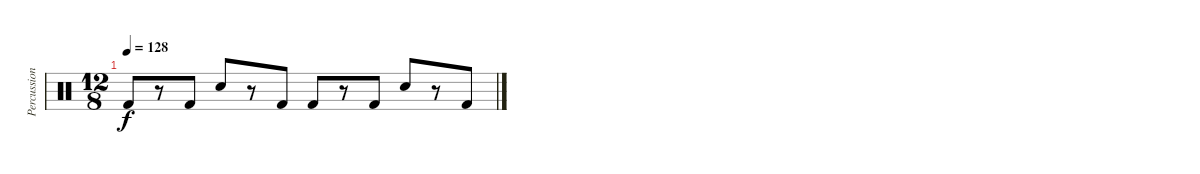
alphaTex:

\track ("Percussion" "Percussion") {instrument percussion}
\staff {score}
\articulation defaults
\ts (12 8)
\tempo 128
\clef neutral
\ks c "Kick (hit) 2".8{dy f}
r.8 "Kick (hit) 2".8 "Snare (hit) 2".8 r.8 "Kick (hit) 2".8 "Kick (hit) 2".8 r.8 "Kick (hit) 2".8 "Snare (hit) 2".8 r.8 "Kick (hit) 2".8
